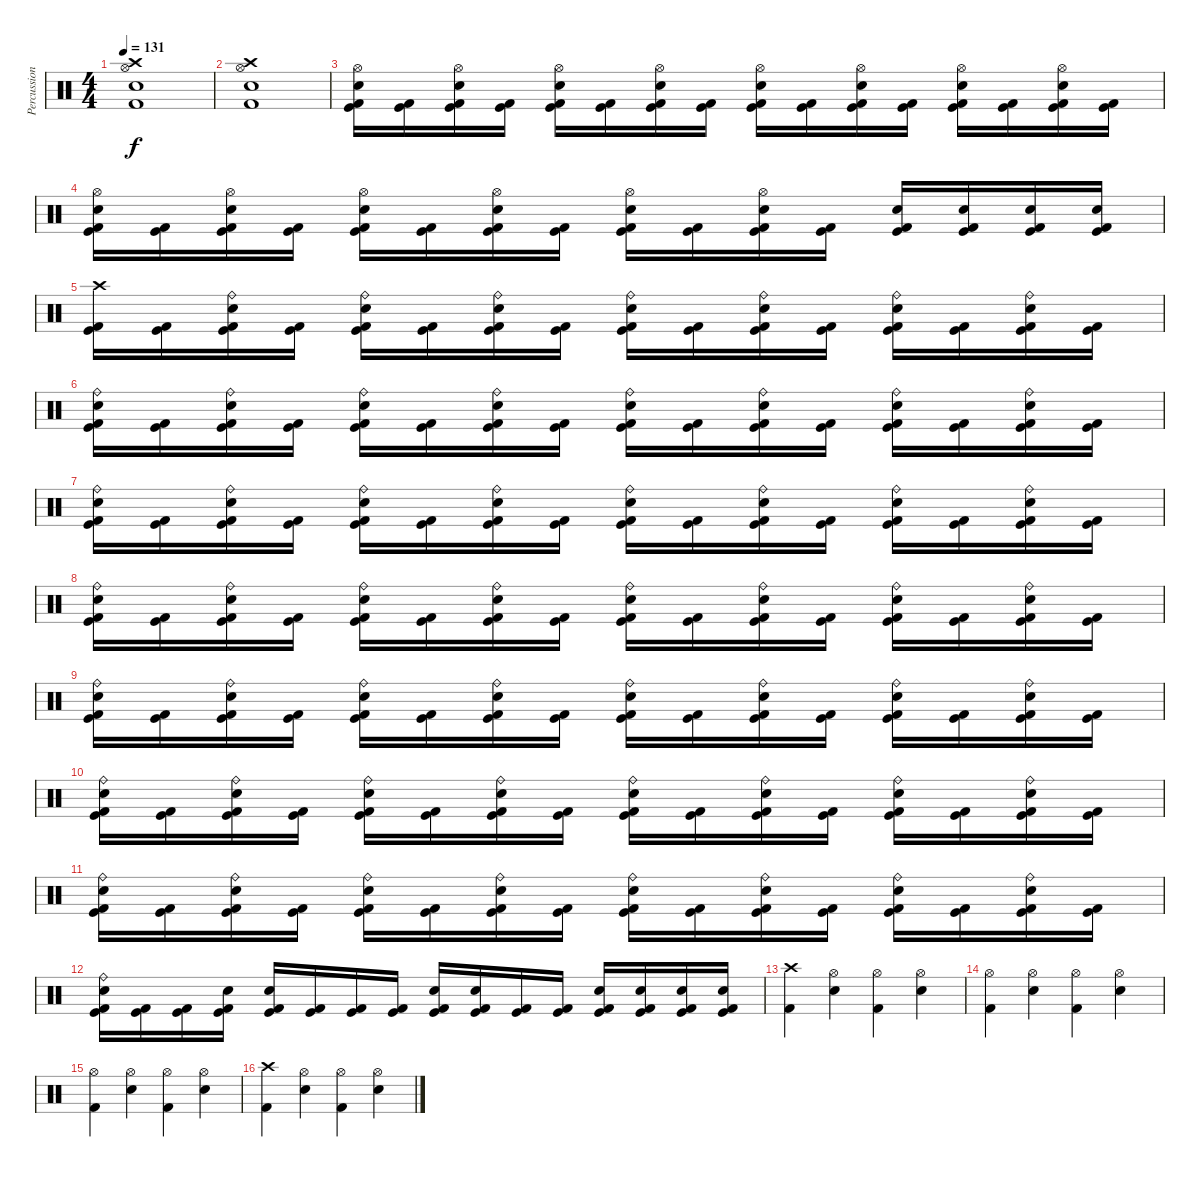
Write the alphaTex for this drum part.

\track ("Percussion" "Percussion") {instrument percussion}
\staff {score}
\articulation defaults
\ts (4 4)
\tempo 131
\clef neutral
\ks c
("Crash high (hit)" "Hi-Hat (open)" "Snare (hit) 2" "Kick (hit) 2").1{dy f} |
("Crash high (hit)" "Hi-Hat (open)" "Snare (hit) 2" "Kick (hit) 2").1 |
("Snare (hit) 2" "Hi-Hat (open)" "Kick (hit)" "Kick (hit) 2").16 ("Kick (hit)" "Kick (hit) 2").16 ("Snare (hit) 2" "Hi-Hat (open)" "Kick (hit)" "Kick (hit) 2").16 ("Kick (hit)" "Kick (hit) 2").16 ("Snare (hit) 2" "Hi-Hat (open)" "Kick (hit)" "Kick (hit) 2").16 ("Kick (hit)" "Kick (hit) 2").16 ("Snare (hit) 2" "Hi-Hat (open)" "Kick (hit)" "Kick (hit) 2").16 ("Kick (hit)" "Kick (hit) 2").16 ("Snare (hit) 2" "Hi-Hat (open)" "Kick (hit)" "Kick (hit) 2").16 ("Kick (hit)" "Kick (hit) 2").16 ("Snare (hit) 2" "Hi-Hat (open)" "Kick (hit)" "Kick (hit) 2").16 ("Kick (hit)" "Kick (hit) 2").16 ("Snare (hit) 2" "Hi-Hat (open)" "Kick (hit)" "Kick (hit) 2").16 ("Kick (hit)" "Kick (hit) 2").16 ("Snare (hit) 2" "Hi-Hat (open)" "Kick (hit)" "Kick (hit) 2").16 ("Kick (hit)" "Kick (hit) 2").16 |
("Snare (hit) 2" "Hi-Hat (open)" "Kick (hit)" "Kick (hit) 2").16 ("Kick (hit)" "Kick (hit) 2").16 ("Snare (hit) 2" "Hi-Hat (open)" "Kick (hit)" "Kick (hit) 2").16 ("Kick (hit)" "Kick (hit) 2").16 ("Snare (hit) 2" "Hi-Hat (open)" "Kick (hit)" "Kick (hit) 2").16 ("Kick (hit)" "Kick (hit) 2").16 ("Snare (hit) 2" "Hi-Hat (open)" "Kick (hit)" "Kick (hit) 2").16 ("Kick (hit)" "Kick (hit) 2").16 ("Snare (hit) 2" "Hi-Hat (open)" "Kick (hit)" "Kick (hit) 2").16 ("Kick (hit)" "Kick (hit) 2").16 ("Snare (hit) 2" "Hi-Hat (open)" "Kick (hit)" "Kick (hit) 2").16 ("Kick (hit)" "Kick (hit) 2").16 ("Snare (hit) 2" "Kick (hit)" "Kick (hit) 2").16 ("Snare (hit) 2" "Kick (hit)" "Kick (hit) 2").16 ("Snare (hit) 2" "Kick (hit)" "Kick (hit) 2").16 ("Snare (hit) 2" "Kick (hit)" "Kick (hit) 2").16 |
("Crash high (hit)" "Kick (hit)" "Kick (hit) 2").16 ("Kick (hit)" "Kick (hit) 2").16 ("Snare (hit) 2" "Ride (bell)" "Kick (hit)" "Kick (hit) 2").16 ("Kick (hit)" "Kick (hit) 2").16 ("Snare (hit) 2" "Ride (bell)" "Kick (hit)" "Kick (hit) 2").16 ("Kick (hit)" "Kick (hit) 2").16 ("Snare (hit) 2" "Ride (bell)" "Kick (hit)" "Kick (hit) 2").16 ("Kick (hit)" "Kick (hit) 2").16 ("Snare (hit) 2" "Ride (bell)" "Kick (hit)" "Kick (hit) 2").16 ("Kick (hit)" "Kick (hit) 2").16 ("Snare (hit) 2" "Ride (bell)" "Kick (hit)" "Kick (hit) 2").16 ("Kick (hit)" "Kick (hit) 2").16 ("Snare (hit) 2" "Ride (bell)" "Kick (hit)" "Kick (hit) 2").16 ("Kick (hit)" "Kick (hit) 2").16 ("Snare (hit) 2" "Ride (bell)" "Kick (hit)" "Kick (hit) 2").16 ("Kick (hit)" "Kick (hit) 2").16 |
("Snare (hit) 2" "Ride (bell)" "Kick (hit)" "Kick (hit) 2").16 ("Kick (hit)" "Kick (hit) 2").16 ("Snare (hit) 2" "Ride (bell)" "Kick (hit)" "Kick (hit) 2").16 ("Kick (hit)" "Kick (hit) 2").16 ("Snare (hit) 2" "Ride (bell)" "Kick (hit)" "Kick (hit) 2").16 ("Kick (hit)" "Kick (hit) 2").16 ("Snare (hit) 2" "Ride (bell)" "Kick (hit)" "Kick (hit) 2").16 ("Kick (hit)" "Kick (hit) 2").16 ("Snare (hit) 2" "Ride (bell)" "Kick (hit)" "Kick (hit) 2").16 ("Kick (hit)" "Kick (hit) 2").16 ("Snare (hit) 2" "Ride (bell)" "Kick (hit)" "Kick (hit) 2").16 ("Kick (hit)" "Kick (hit) 2").16 ("Snare (hit) 2" "Ride (bell)" "Kick (hit)" "Kick (hit) 2").16 ("Kick (hit)" "Kick (hit) 2").16 ("Snare (hit) 2" "Ride (bell)" "Kick (hit)" "Kick (hit) 2").16 ("Kick (hit)" "Kick (hit) 2").16 |
("Snare (hit) 2" "Ride (bell)" "Kick (hit)" "Kick (hit) 2").16 ("Kick (hit)" "Kick (hit) 2").16 ("Snare (hit) 2" "Ride (bell)" "Kick (hit)" "Kick (hit) 2").16 ("Kick (hit)" "Kick (hit) 2").16 ("Snare (hit) 2" "Ride (bell)" "Kick (hit)" "Kick (hit) 2").16 ("Kick (hit)" "Kick (hit) 2").16 ("Snare (hit) 2" "Ride (bell)" "Kick (hit)" "Kick (hit) 2").16 ("Kick (hit)" "Kick (hit) 2").16 ("Snare (hit) 2" "Ride (bell)" "Kick (hit)" "Kick (hit) 2").16 ("Kick (hit)" "Kick (hit) 2").16 ("Snare (hit) 2" "Ride (bell)" "Kick (hit)" "Kick (hit) 2").16 ("Kick (hit)" "Kick (hit) 2").16 ("Snare (hit) 2" "Ride (bell)" "Kick (hit)" "Kick (hit) 2").16 ("Kick (hit)" "Kick (hit) 2").16 ("Snare (hit) 2" "Ride (bell)" "Kick (hit)" "Kick (hit) 2").16 ("Kick (hit)" "Kick (hit) 2").16 |
("Snare (hit) 2" "Ride (bell)" "Kick (hit)" "Kick (hit) 2").16 ("Kick (hit)" "Kick (hit) 2").16 ("Snare (hit) 2" "Ride (bell)" "Kick (hit)" "Kick (hit) 2").16 ("Kick (hit)" "Kick (hit) 2").16 ("Snare (hit) 2" "Ride (bell)" "Kick (hit)" "Kick (hit) 2").16 ("Kick (hit)" "Kick (hit) 2").16 ("Snare (hit) 2" "Ride (bell)" "Kick (hit)" "Kick (hit) 2").16 ("Kick (hit)" "Kick (hit) 2").16 ("Snare (hit) 2" "Ride (bell)" "Kick (hit)" "Kick (hit) 2").16 ("Kick (hit)" "Kick (hit) 2").16 ("Snare (hit) 2" "Ride (bell)" "Kick (hit)" "Kick (hit) 2").16 ("Kick (hit)" "Kick (hit) 2").16 ("Snare (hit) 2" "Ride (bell)" "Kick (hit)" "Kick (hit) 2").16 ("Kick (hit)" "Kick (hit) 2").16 ("Snare (hit) 2" "Ride (bell)" "Kick (hit)" "Kick (hit) 2").16 ("Kick (hit)" "Kick (hit) 2").16 |
("Snare (hit) 2" "Ride (bell)" "Kick (hit)" "Kick (hit) 2").16 ("Kick (hit)" "Kick (hit) 2").16 ("Snare (hit) 2" "Ride (bell)" "Kick (hit)" "Kick (hit) 2").16 ("Kick (hit)" "Kick (hit) 2").16 ("Snare (hit) 2" "Ride (bell)" "Kick (hit)" "Kick (hit) 2").16 ("Kick (hit)" "Kick (hit) 2").16 ("Snare (hit) 2" "Ride (bell)" "Kick (hit)" "Kick (hit) 2").16 ("Kick (hit)" "Kick (hit) 2").16 ("Snare (hit) 2" "Ride (bell)" "Kick (hit)" "Kick (hit) 2").16 ("Kick (hit)" "Kick (hit) 2").16 ("Snare (hit) 2" "Ride (bell)" "Kick (hit)" "Kick (hit) 2").16 ("Kick (hit)" "Kick (hit) 2").16 ("Snare (hit) 2" "Ride (bell)" "Kick (hit)" "Kick (hit) 2").16 ("Kick (hit)" "Kick (hit) 2").16 ("Snare (hit) 2" "Ride (bell)" "Kick (hit)" "Kick (hit) 2").16 ("Kick (hit)" "Kick (hit) 2").16 |
("Snare (hit) 2" "Ride (bell)" "Kick (hit)" "Kick (hit) 2").16 ("Kick (hit)" "Kick (hit) 2").16 ("Snare (hit) 2" "Ride (bell)" "Kick (hit)" "Kick (hit) 2").16 ("Kick (hit)" "Kick (hit) 2").16 ("Snare (hit) 2" "Ride (bell)" "Kick (hit)" "Kick (hit) 2").16 ("Kick (hit)" "Kick (hit) 2").16 ("Snare (hit) 2" "Ride (bell)" "Kick (hit)" "Kick (hit) 2").16 ("Kick (hit)" "Kick (hit) 2").16 ("Snare (hit) 2" "Ride (bell)" "Kick (hit)" "Kick (hit) 2").16 ("Kick (hit)" "Kick (hit) 2").16 ("Snare (hit) 2" "Ride (bell)" "Kick (hit)" "Kick (hit) 2").16 ("Kick (hit)" "Kick (hit) 2").16 ("Snare (hit) 2" "Ride (bell)" "Kick (hit)" "Kick (hit) 2").16 ("Kick (hit)" "Kick (hit) 2").16 ("Snare (hit) 2" "Ride (bell)" "Kick (hit)" "Kick (hit) 2").16 ("Kick (hit)" "Kick (hit) 2").16 |
("Snare (hit) 2" "Ride (bell)" "Kick (hit)" "Kick (hit) 2").16 ("Kick (hit)" "Kick (hit) 2").16 ("Snare (hit) 2" "Ride (bell)" "Kick (hit)" "Kick (hit) 2").16 ("Kick (hit)" "Kick (hit) 2").16 ("Snare (hit) 2" "Ride (bell)" "Kick (hit)" "Kick (hit) 2").16 ("Kick (hit)" "Kick (hit) 2").16 ("Snare (hit) 2" "Ride (bell)" "Kick (hit)" "Kick (hit) 2").16 ("Kick (hit)" "Kick (hit) 2").16 ("Snare (hit) 2" "Ride (bell)" "Kick (hit)" "Kick (hit) 2").16 ("Kick (hit)" "Kick (hit) 2").16 ("Snare (hit) 2" "Ride (bell)" "Kick (hit)" "Kick (hit) 2").16 ("Kick (hit)" "Kick (hit) 2").16 ("Snare (hit) 2" "Ride (bell)" "Kick (hit)" "Kick (hit) 2").16 ("Kick (hit)" "Kick (hit) 2").16 ("Snare (hit) 2" "Ride (bell)" "Kick (hit)" "Kick (hit) 2").16 ("Kick (hit)" "Kick (hit) 2").16 |
("Snare (hit) 2" "Ride (bell)" "Kick (hit)" "Kick (hit) 2").16 ("Kick (hit)" "Kick (hit) 2").16 ("Kick (hit)" "Kick (hit) 2").16 ("Snare (hit) 2" "Kick (hit)" "Kick (hit) 2").16 ("Snare (hit) 2" "Kick (hit)" "Kick (hit) 2").16 ("Kick (hit)" "Kick (hit) 2").16 ("Kick (hit)" "Kick (hit) 2").16 ("Kick (hit)" "Kick (hit) 2").16 ("Snare (hit) 2" "Kick (hit)" "Kick (hit) 2").16 ("Snare (hit) 2" "Kick (hit)" "Kick (hit) 2").16 ("Kick (hit)" "Kick (hit) 2").16 ("Kick (hit)" "Kick (hit) 2").16 ("Snare (hit) 2" "Kick (hit)" "Kick (hit) 2").16 ("Snare (hit) 2" "Kick (hit)" "Kick (hit) 2").16 ("Snare (hit) 2" "Kick (hit)" "Kick (hit) 2").16 ("Snare (hit) 2" "Kick (hit)" "Kick (hit) 2").16 |
("Crash high (hit)" "Kick (hit) 2").4 ("Hi-Hat (open)" "Snare (hit) 2").4 ("Hi-Hat (open)" "Kick (hit) 2").4 ("Hi-Hat (open)" "Snare (hit) 2").4 |
("Hi-Hat (open)" "Kick (hit) 2").4 ("Hi-Hat (open)" "Snare (hit) 2").4 ("Hi-Hat (open)" "Kick (hit) 2").4 ("Hi-Hat (open)" "Snare (hit) 2").4 |
("Hi-Hat (open)" "Kick (hit) 2").4 ("Hi-Hat (open)" "Snare (hit) 2").4 ("Hi-Hat (open)" "Kick (hit) 2").4 ("Hi-Hat (open)" "Snare (hit) 2").4 |
("Crash high (hit)" "Kick (hit) 2").4 ("Hi-Hat (open)" "Snare (hit) 2").4 ("Hi-Hat (open)" "Kick (hit) 2").4 ("Hi-Hat (open)" "Snare (hit) 2").4
